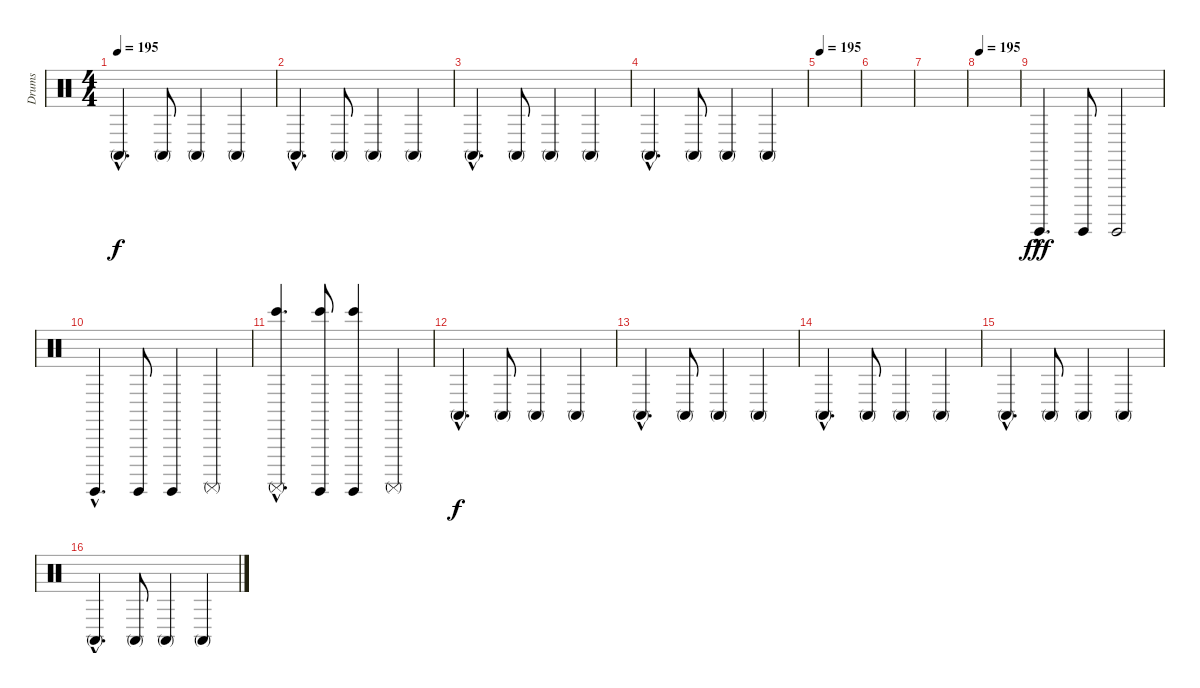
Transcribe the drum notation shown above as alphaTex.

\track ("Drums" "Drums") {instrument percussion}
\staff {score}
\articulation defaults
\ts (4 4)
\tempo 195
\clef neutral
\ks c "Conga high (mute)"{hac}.4{d dy f} "Conga high (mute)".8 "Conga high (mute)".4 "Conga high (mute)".4
|
"Conga high (mute)"{hac}.4{d} "Conga high (mute)".8 "Conga high (mute)".4 "Conga high (mute)".4 |
"Conga high (mute)"{hac}.4{d} "Conga high (mute)".8 "Conga high (mute)".4 "Conga high (mute)".4 |
"Conga high (mute)"{hac}.4{d} "Conga high (mute)".8 "Conga high (mute)".4 "Conga high (mute)".4 |
\tempo 195
|
|
|
\tempo 195
|
"Surdo (hit)"{hac}.4{d dy fff} "Surdo (hit)".8 "Surdo (hit)".2 |
"Surdo (hit)"{hac}.4{d} "Surdo (hit)".8 "Surdo (hit)".4 "Surdo (mute)".4 |
("Surdo (mute)"{hac} "Bongo High (hit)"{hac}).4{d} ("Surdo (hit)" "Bongo High (hit)").8 ("Surdo (hit)" "Bongo High (hit)").4 "Surdo (mute)".4 |
"Conga high (mute)"{hac}.4{d dy f} "Conga high (mute)".8 "Conga high (mute)".4 "Conga high (mute)".4 |
"Conga high (mute)"{hac}.4{d} "Conga high (mute)".8 "Conga high (mute)".4 "Conga high (mute)".4 |
"Conga high (mute)"{hac}.4{d} "Conga high (mute)".8 "Conga high (mute)".4 "Conga high (mute)".4 |
"Conga high (mute)"{hac}.4{d} "Conga high (mute)".8 "Conga high (mute)".4 "Conga high (mute)".4 |
"Conga high (mute)"{hac}.4{d} "Conga high (mute)".8 "Conga high (mute)".4 "Conga high (mute)".4
